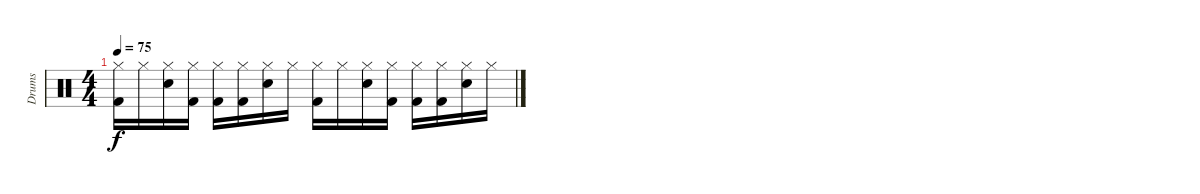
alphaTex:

\track ("Drums" "Drums") {instrument percussion}
\staff {score}
\articulation defaults
\ts (4 4)
\tempo 75
\clef neutral
\ks c
("Hi-Hat (closed)" "Kick (hit) 2").16{dy f} "Hi-Hat (closed)".16 ("Hi-Hat (closed)" "Snare (hit) 2").16 ("Hi-Hat (closed)" "Kick (hit) 2").16 ("Hi-Hat (closed)" "Kick (hit) 2").16 ("Hi-Hat (closed)" "Kick (hit) 2").16 ("Hi-Hat (closed)" "Snare (hit) 2").16 "Hi-Hat (closed)".16 ("Hi-Hat (closed)" "Kick (hit) 2").16 "Hi-Hat (closed)".16 ("Hi-Hat (closed)" "Snare (hit) 2").16 ("Hi-Hat (closed)" "Kick (hit) 2").16 ("Hi-Hat (closed)" "Kick (hit) 2").16 ("Hi-Hat (closed)" "Kick (hit) 2").16 ("Hi-Hat (closed)" "Snare (hit) 2").16 "Hi-Hat (closed)".16
